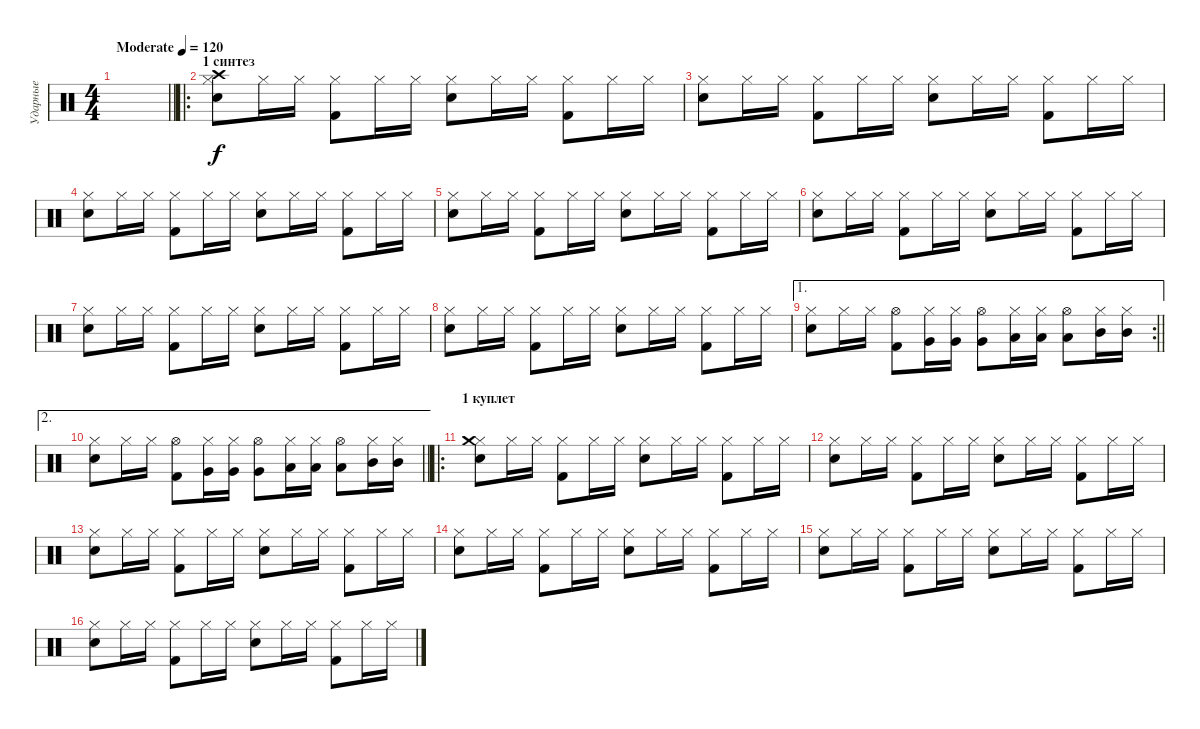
\track ("Ударные" "Ударные") {instrument percussion}
\staff {score}
\articulation defaults
\ts (4 4)
\tempo (120 "Moderate")
\clef neutral
\barLineRight lightlight
\ks c
|
\ro
\section ("" "1 синтез")
("Hi-Hat (closed)" "Snare (hit) 2" "Crash high (hit)").8 "Hi-Hat (closed)".16 "Hi-Hat (closed)".16 ("Hi-Hat (closed)" "Kick (hit) 2").8 "Hi-Hat (closed)".16 "Hi-Hat (closed)".16 ("Hi-Hat (closed)" "Snare (hit) 2").8 "Hi-Hat (closed)".16 "Hi-Hat (closed)".16 ("Hi-Hat (closed)" "Kick (hit) 2").8 "Hi-Hat (closed)".16 "Hi-Hat (closed)".16 |
("Hi-Hat (closed)" "Snare (hit) 2").8 "Hi-Hat (closed)".16 "Hi-Hat (closed)".16 ("Hi-Hat (closed)" "Kick (hit) 2").8 "Hi-Hat (closed)".16 "Hi-Hat (closed)".16 ("Hi-Hat (closed)" "Snare (hit) 2").8 "Hi-Hat (closed)".16 "Hi-Hat (closed)".16 ("Hi-Hat (closed)" "Kick (hit) 2").8 "Hi-Hat (closed)".16 "Hi-Hat (closed)".16 |
("Hi-Hat (closed)" "Snare (hit) 2").8 "Hi-Hat (closed)".16 "Hi-Hat (closed)".16 ("Hi-Hat (closed)" "Kick (hit) 2").8 "Hi-Hat (closed)".16 "Hi-Hat (closed)".16 ("Hi-Hat (closed)" "Snare (hit) 2").8 "Hi-Hat (closed)".16 "Hi-Hat (closed)".16 ("Hi-Hat (closed)" "Kick (hit) 2").8 "Hi-Hat (closed)".16 "Hi-Hat (closed)".16 |
("Hi-Hat (closed)" "Snare (hit) 2").8 "Hi-Hat (closed)".16 "Hi-Hat (closed)".16 ("Hi-Hat (closed)" "Kick (hit) 2").8 "Hi-Hat (closed)".16 "Hi-Hat (closed)".16 ("Hi-Hat (closed)" "Snare (hit) 2").8 "Hi-Hat (closed)".16 "Hi-Hat (closed)".16 ("Hi-Hat (closed)" "Kick (hit) 2").8 "Hi-Hat (closed)".16 "Hi-Hat (closed)".16 |
("Hi-Hat (closed)" "Snare (hit) 2").8 "Hi-Hat (closed)".16 "Hi-Hat (closed)".16 ("Hi-Hat (closed)" "Kick (hit) 2").8 "Hi-Hat (closed)".16 "Hi-Hat (closed)".16 ("Hi-Hat (closed)" "Snare (hit) 2").8 "Hi-Hat (closed)".16 "Hi-Hat (closed)".16 ("Hi-Hat (closed)" "Kick (hit) 2").8 "Hi-Hat (closed)".16 "Hi-Hat (closed)".16 |
("Hi-Hat (closed)" "Snare (hit) 2").8 "Hi-Hat (closed)".16 "Hi-Hat (closed)".16 ("Hi-Hat (closed)" "Kick (hit) 2").8 "Hi-Hat (closed)".16 "Hi-Hat (closed)".16 ("Hi-Hat (closed)" "Snare (hit) 2").8 "Hi-Hat (closed)".16 "Hi-Hat (closed)".16 ("Hi-Hat (closed)" "Kick (hit) 2").8 "Hi-Hat (closed)".16 "Hi-Hat (closed)".16 |
("Hi-Hat (closed)" "Snare (hit) 2").8 "Hi-Hat (closed)".16 "Hi-Hat (closed)".16 ("Hi-Hat (closed)" "Kick (hit) 2").8 "Hi-Hat (closed)".16 "Hi-Hat (closed)".16 ("Hi-Hat (closed)" "Snare (hit) 2").8 "Hi-Hat (closed)".16 "Hi-Hat (closed)".16 ("Hi-Hat (closed)" "Kick (hit) 2").8 "Hi-Hat (closed)".16 "Hi-Hat (closed)".16 |
\ae 1
\rc 2
\barLineRight lightlight
("Hi-Hat (closed)" "Snare (hit) 2").8 "Hi-Hat (closed)".16 "Hi-Hat (closed)".16 ("Hi-Hat (open)" "Kick (hit) 2").8 ("Hi-Hat (closed)" "Very Low Tom (hit)").16 ("Hi-Hat (closed)" "Very Low Tom (hit)").16 ("Hi-Hat (open)" "Very Low Tom (hit)").8 ("Hi-Hat (closed)" "Low Tom (hit)").16 ("Hi-Hat (closed)" "Low Tom (hit)").16 ("Hi-Hat (open)" "Low Tom (hit)").8 ("Hi-Hat (closed)" "Mid Tom (hit)").16 ("Hi-Hat (closed)" "Mid Tom (hit)").16 |
\ae 2
\barLineRight lightlight
("Hi-Hat (closed)" "Snare (hit) 2").8 "Hi-Hat (closed)".16 "Hi-Hat (closed)".16 ("Hi-Hat (open)" "Kick (hit) 2").8 ("Hi-Hat (closed)" "Very Low Tom (hit)").16 ("Hi-Hat (closed)" "Very Low Tom (hit)").16 ("Hi-Hat (open)" "Very Low Tom (hit)").8 ("Hi-Hat (closed)" "Low Tom (hit)").16 ("Hi-Hat (closed)" "Low Tom (hit)").16 ("Hi-Hat (open)" "Low Tom (hit)").8 ("Hi-Hat (closed)" "Mid Tom (hit)").16 ("Hi-Hat (closed)" "Mid Tom (hit)").16 |
\ro
\section ("" "1 куплет")
("Hi-Hat (closed)" "Snare (hit) 2" "Crash medium (hit)").8 "Hi-Hat (closed)".16 "Hi-Hat (closed)".16 ("Hi-Hat (closed)" "Kick (hit) 2").8 "Hi-Hat (closed)".16 "Hi-Hat (closed)".16 ("Hi-Hat (closed)" "Snare (hit) 2").8 "Hi-Hat (closed)".16 "Hi-Hat (closed)".16 ("Hi-Hat (closed)" "Kick (hit) 2").8 "Hi-Hat (closed)".16 "Hi-Hat (closed)".16 |
("Hi-Hat (closed)" "Snare (hit) 2").8 "Hi-Hat (closed)".16 "Hi-Hat (closed)".16 ("Hi-Hat (closed)" "Kick (hit) 2").8 "Hi-Hat (closed)".16 "Hi-Hat (closed)".16 ("Hi-Hat (closed)" "Snare (hit) 2").8 "Hi-Hat (closed)".16 "Hi-Hat (closed)".16 ("Hi-Hat (closed)" "Kick (hit) 2").8 "Hi-Hat (closed)".16 "Hi-Hat (closed)".16 |
("Hi-Hat (closed)" "Snare (hit) 2").8 "Hi-Hat (closed)".16 "Hi-Hat (closed)".16 ("Hi-Hat (closed)" "Kick (hit) 2").8 "Hi-Hat (closed)".16 "Hi-Hat (closed)".16 ("Hi-Hat (closed)" "Snare (hit) 2").8 "Hi-Hat (closed)".16 "Hi-Hat (closed)".16 ("Hi-Hat (closed)" "Kick (hit) 2").8 "Hi-Hat (closed)".16 "Hi-Hat (closed)".16 |
("Hi-Hat (closed)" "Snare (hit) 2").8 "Hi-Hat (closed)".16 "Hi-Hat (closed)".16 ("Hi-Hat (closed)" "Kick (hit) 2").8 "Hi-Hat (closed)".16 "Hi-Hat (closed)".16 ("Hi-Hat (closed)" "Snare (hit) 2").8 "Hi-Hat (closed)".16 "Hi-Hat (closed)".16 ("Hi-Hat (closed)" "Kick (hit) 2").8 "Hi-Hat (closed)".16 "Hi-Hat (closed)".16 |
("Hi-Hat (closed)" "Snare (hit) 2").8 "Hi-Hat (closed)".16 "Hi-Hat (closed)".16 ("Hi-Hat (closed)" "Kick (hit) 2").8 "Hi-Hat (closed)".16 "Hi-Hat (closed)".16 ("Hi-Hat (closed)" "Snare (hit) 2").8 "Hi-Hat (closed)".16 "Hi-Hat (closed)".16 ("Hi-Hat (closed)" "Kick (hit) 2").8 "Hi-Hat (closed)".16 "Hi-Hat (closed)".16 |
("Hi-Hat (closed)" "Snare (hit) 2").8 "Hi-Hat (closed)".16 "Hi-Hat (closed)".16 ("Hi-Hat (closed)" "Kick (hit) 2").8 "Hi-Hat (closed)".16 "Hi-Hat (closed)".16 ("Hi-Hat (closed)" "Snare (hit) 2").8 "Hi-Hat (closed)".16 "Hi-Hat (closed)".16 ("Hi-Hat (closed)" "Kick (hit) 2").8 "Hi-Hat (closed)".16 "Hi-Hat (closed)".16
